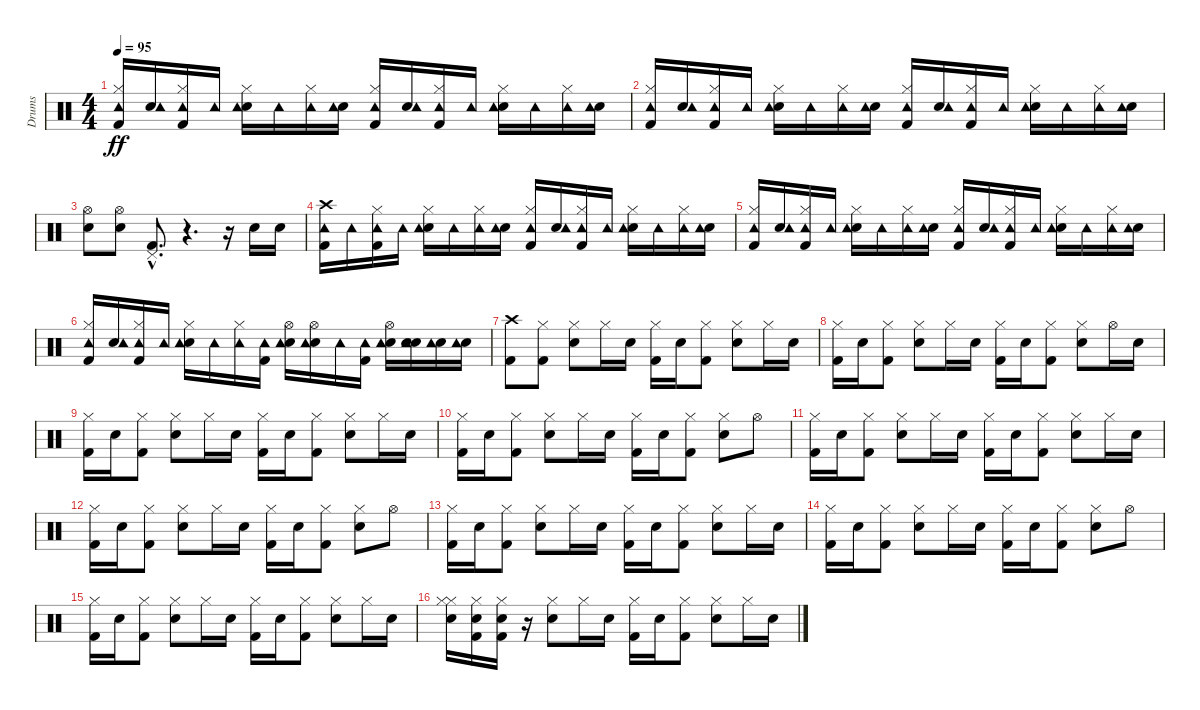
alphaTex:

\track ("Drums" "Drums") {instrument percussion}
\staff {score}
\articulation defaults
\ts (4 4)
\tempo 95
\clef neutral
\ks c
("Kick (hit) 2" "Hi-Hat (closed)" "Tambourine (hit)").16{dy ff} ("Electric Snare (hit)" "Tambourine (hit)").16 ("Kick (hit) 2" "Hi-Hat (closed)" "Tambourine (hit)").16 "Tambourine (hit)".16 ("Electric Snare (hit)" "Hi-Hat (closed)" "Tambourine (hit)").16 "Tambourine (hit)".16 ("Hi-Hat (closed)" "Tambourine (hit)").16 ("Electric Snare (hit)" "Tambourine (hit)").16 ("Kick (hit) 2" "Hi-Hat (closed)" "Tambourine (hit)").16 ("Electric Snare (hit)" "Tambourine (hit)").16 ("Kick (hit) 2" "Hi-Hat (closed)" "Tambourine (hit)").16 "Tambourine (hit)".16 ("Electric Snare (hit)" "Hi-Hat (closed)" "Tambourine (hit)").16 "Tambourine (hit)".16 ("Hi-Hat (closed)" "Tambourine (hit)").16 ("Electric Snare (hit)" "Tambourine (hit)").16 |
("Kick (hit) 2" "Hi-Hat (closed)" "Tambourine (hit)").16 ("Electric Snare (hit)" "Tambourine (hit)").16 ("Kick (hit) 2" "Hi-Hat (closed)" "Tambourine (hit)").16 "Tambourine (hit)".16 ("Electric Snare (hit)" "Hi-Hat (closed)" "Tambourine (hit)").16 "Tambourine (hit)".16 ("Hi-Hat (closed)" "Tambourine (hit)").16 ("Electric Snare (hit)" "Tambourine (hit)").16 ("Kick (hit) 2" "Hi-Hat (closed)" "Tambourine (hit)").16 ("Electric Snare (hit)" "Tambourine (hit)").16 ("Kick (hit) 2" "Hi-Hat (closed)" "Tambourine (hit)").16 "Tambourine (hit)".16 ("Electric Snare (hit)" "Hi-Hat (closed)" "Tambourine (hit)").16 "Tambourine (hit)".16 ("Hi-Hat (closed)" "Tambourine (hit)").16 ("Electric Snare (hit)" "Tambourine (hit)").16 |
("Electric Snare (hit)" "Hi-Hat (open)").8 ("Electric Snare (hit)" "Hi-Hat (open)").8 ("Kick (hit) 2"{hac} "Pedal Hi-Hat (hit)"{hac}).8{d} r.4{d} r.16 "Hand Clap (hit)".16 "Hand Clap (hit)".16 |
("Kick (hit) 2" "Crash high (hit)" "Tambourine (hit)").16 "Tambourine (hit)".16 ("Kick (hit) 2" "Hi-Hat (closed)" "Tambourine (hit)").16 "Tambourine (hit)".16 ("Electric Snare (hit)" "Hi-Hat (closed)" "Tambourine (hit)").16 "Tambourine (hit)".16 ("Hi-Hat (closed)" "Tambourine (hit)").16 ("Electric Snare (hit)" "Tambourine (hit)").16 ("Kick (hit) 2" "Hi-Hat (closed)" "Tambourine (hit)").16 ("Electric Snare (hit)" "Tambourine (hit)").16 ("Kick (hit) 2" "Hi-Hat (closed)" "Tambourine (hit)").16 "Tambourine (hit)".16 ("Electric Snare (hit)" "Hi-Hat (closed)" "Tambourine (hit)").16 "Tambourine (hit)".16 ("Hi-Hat (closed)" "Tambourine (hit)").16 ("Electric Snare (hit)" "Tambourine (hit)").16 |
("Kick (hit) 2" "Hi-Hat (closed)" "Tambourine (hit)").16 ("Electric Snare (hit)" "Tambourine (hit)").16 ("Kick (hit) 2" "Hi-Hat (closed)" "Tambourine (hit)").16 "Tambourine (hit)".16 ("Electric Snare (hit)" "Hi-Hat (closed)" "Tambourine (hit)").16 "Tambourine (hit)".16 ("Hi-Hat (closed)" "Tambourine (hit)").16 ("Electric Snare (hit)" "Tambourine (hit)").16 ("Kick (hit) 2" "Hi-Hat (closed)" "Tambourine (hit)").16 ("Electric Snare (hit)" "Tambourine (hit)").16 ("Kick (hit) 2" "Hi-Hat (closed)" "Tambourine (hit)").16 "Tambourine (hit)".16 ("Electric Snare (hit)" "Hi-Hat (closed)" "Tambourine (hit)").16 "Tambourine (hit)".16 ("Hi-Hat (closed)" "Tambourine (hit)").16 ("Electric Snare (hit)" "Tambourine (hit)").16 |
("Kick (hit) 2" "Hi-Hat (closed)" "Tambourine (hit)").16 ("Electric Snare (hit)" "Tambourine (hit)").16 ("Kick (hit) 2" "Hi-Hat (closed)" "Tambourine (hit)").16 "Tambourine (hit)".16 ("Electric Snare (hit)" "Hi-Hat (closed)" "Tambourine (hit)").16 "Tambourine (hit)".16 ("Hi-Hat (closed)" "Tambourine (hit)").16 ("Kick (hit) 2" "Tambourine (hit)").16 ("Electric Snare (hit)" "Hi-Hat (open)" "Tambourine (hit)").16 ("Electric Snare (hit)" "Hi-Hat (open)" "Tambourine (hit)").16 "Tambourine (hit)".16 ("Kick (hit) 2" "Tambourine (hit)").16 ("Electric Snare (hit)" "Hi-Hat (open)" "Tambourine (hit)").16 ("Electric Snare (hit)" "Tambourine (hit)" "Electric Snare (hit)").16 ("Electric Snare (hit)" "Tambourine (hit)").16 ("Electric Snare (hit)" "Tambourine (hit)").16 |
("Kick (hit) 2" "Crash high (hit)").8 ("Kick (hit) 2" "Hi-Hat (closed)").8 ("Electric Snare (hit)" "Hi-Hat (closed)").8 "Hi-Hat (closed)".16 "Electric Snare (hit)".16 ("Kick (hit) 2" "Hi-Hat (closed)").16 "Electric Snare (hit)".16 ("Kick (hit) 2" "Hi-Hat (closed)").8 ("Electric Snare (hit)" "Hi-Hat (closed)").8 "Hi-Hat (closed)".16 "Electric Snare (hit)".16 |
("Kick (hit) 2" "Hi-Hat (closed)").16 "Electric Snare (hit)".16 ("Kick (hit) 2" "Hi-Hat (closed)").8 ("Electric Snare (hit)" "Hi-Hat (closed)").8 "Hi-Hat (closed)".16 "Electric Snare (hit)".16 ("Kick (hit) 2" "Hi-Hat (closed)").16 "Electric Snare (hit)".16 ("Kick (hit) 2" "Hi-Hat (closed)").8 ("Electric Snare (hit)" "Hi-Hat (closed)").8 "Hi-Hat (open)".16 "Electric Snare (hit)".16 |
("Kick (hit) 2" "Hi-Hat (closed)").16 "Electric Snare (hit)".16 ("Kick (hit) 2" "Hi-Hat (closed)").8 ("Electric Snare (hit)" "Hi-Hat (closed)").8 "Hi-Hat (closed)".16 "Electric Snare (hit)".16 ("Kick (hit) 2" "Hi-Hat (closed)").16 "Electric Snare (hit)".16 ("Kick (hit) 2" "Hi-Hat (closed)").8 ("Electric Snare (hit)" "Hi-Hat (closed)").8 "Hi-Hat (closed)".16 "Electric Snare (hit)".16 |
("Kick (hit) 2" "Hi-Hat (closed)").16 "Electric Snare (hit)".16 ("Kick (hit) 2" "Hi-Hat (closed)").8 ("Electric Snare (hit)" "Hi-Hat (closed)").8 "Hi-Hat (closed)".16 "Electric Snare (hit)".16 ("Kick (hit) 2" "Hi-Hat (closed)").16 "Electric Snare (hit)".16 ("Kick (hit) 2" "Hi-Hat (closed)").8 ("Electric Snare (hit)" "Hi-Hat (closed)").8 "Hi-Hat (open)".8 |
("Kick (hit) 2" "Hi-Hat (closed)").16 "Electric Snare (hit)".16 ("Kick (hit) 2" "Hi-Hat (closed)").8 ("Electric Snare (hit)" "Hi-Hat (closed)").8 "Hi-Hat (closed)".16 "Electric Snare (hit)".16 ("Kick (hit) 2" "Hi-Hat (closed)").16 "Electric Snare (hit)".16 ("Kick (hit) 2" "Hi-Hat (closed)").8 ("Electric Snare (hit)" "Hi-Hat (closed)").8 "Hi-Hat (closed)".16 "Electric Snare (hit)".16 |
("Kick (hit) 2" "Hi-Hat (closed)").16 "Electric Snare (hit)".16 ("Kick (hit) 2" "Hi-Hat (closed)").8 ("Electric Snare (hit)" "Hi-Hat (closed)").8 "Hi-Hat (closed)".16 "Electric Snare (hit)".16 ("Kick (hit) 2" "Hi-Hat (closed)").16 "Electric Snare (hit)".16 ("Kick (hit) 2" "Hi-Hat (closed)").8 ("Electric Snare (hit)" "Hi-Hat (closed)").8 "Hi-Hat (open)".8 |
("Kick (hit) 2" "Hi-Hat (closed)").16 "Electric Snare (hit)".16 ("Kick (hit) 2" "Hi-Hat (closed)").8 ("Electric Snare (hit)" "Hi-Hat (closed)").8 "Hi-Hat (closed)".16 "Electric Snare (hit)".16 ("Kick (hit) 2" "Hi-Hat (closed)").16 "Electric Snare (hit)".16 ("Kick (hit) 2" "Hi-Hat (closed)").8 ("Electric Snare (hit)" "Hi-Hat (closed)").8 "Hi-Hat (closed)".16 "Electric Snare (hit)".16 |
("Kick (hit) 2" "Hi-Hat (closed)").16 "Electric Snare (hit)".16 ("Kick (hit) 2" "Hi-Hat (closed)").8 ("Electric Snare (hit)" "Hi-Hat (closed)").8 "Hi-Hat (closed)".16 "Electric Snare (hit)".16 ("Kick (hit) 2" "Hi-Hat (closed)").16 "Electric Snare (hit)".16 ("Kick (hit) 2" "Hi-Hat (closed)").8 ("Electric Snare (hit)" "Hi-Hat (closed)").8 "Hi-Hat (open)".8 |
("Kick (hit) 2" "Hi-Hat (closed)").16 "Electric Snare (hit)".16 ("Kick (hit) 2" "Hi-Hat (closed)").8 ("Electric Snare (hit)" "Hi-Hat (closed)").8 "Hi-Hat (closed)".16 "Electric Snare (hit)".16 ("Kick (hit) 2" "Hi-Hat (closed)").16 "Electric Snare (hit)".16 ("Kick (hit) 2" "Hi-Hat (closed)").8 ("Electric Snare (hit)" "Hi-Hat (closed)").8 "Hi-Hat (closed)".16 "Electric Snare (hit)".16 |
("Electric Snare (hit)" "Hi-Hat (closed)" "Hi-Hat (closed)").16 ("Electric Snare (hit)" "Kick (hit) 2" "Hi-Hat (closed)").16 ("Electric Snare (hit)" "Kick (hit) 2" "Hi-Hat (closed)").16 r.16 ("Electric Snare (hit)" "Hi-Hat (closed)").8 "Hi-Hat (closed)".16 "Electric Snare (hit)".16 ("Kick (hit) 2" "Hi-Hat (closed)").16 "Electric Snare (hit)".16 ("Kick (hit) 2" "Hi-Hat (closed)").8 ("Electric Snare (hit)" "Hi-Hat (closed)").8 "Hi-Hat (closed)".16 "Electric Snare (hit)".16
